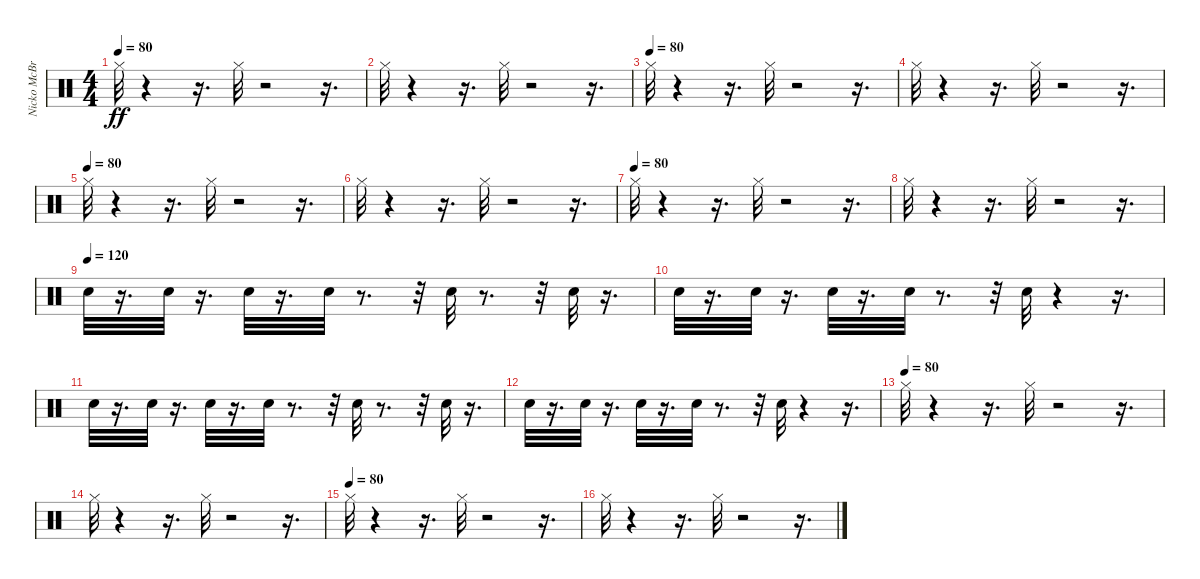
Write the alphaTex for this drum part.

\track ("Nicko McBrain" "Nicko McBr") {instrument percussion}
\staff {score}
\articulation defaults
\ts (4 4)
\tempo 80
\clef neutral
\ks c "Hi-Hat (closed)".32{dy ff}
r.4 r.16{d} "Hi-Hat (closed)".32 r.2 r.16{d} |
"Hi-Hat (closed)".32 r.4 r.16{d} "Hi-Hat (closed)".32 r.2 r.16{d} |
\tempo (80)
"Hi-Hat (closed)".32 r.4 r.16{d} "Hi-Hat (closed)".32 r.2 r.16{d} |
"Hi-Hat (closed)".32 r.4 r.16{d} "Hi-Hat (closed)".32 r.2 r.16{d} |
\tempo (80)
"Hi-Hat (closed)".32 r.4 r.16{d} "Hi-Hat (closed)".32 r.2 r.16{d} |
"Hi-Hat (closed)".32 r.4 r.16{d} "Hi-Hat (closed)".32 r.2 r.16{d} |
\tempo (80)
"Hi-Hat (closed)".32 r.4 r.16{d} "Hi-Hat (closed)".32 r.2 r.16{d} |
"Hi-Hat (closed)".32 r.4 r.16{d} "Hi-Hat (closed)".32 r.2 r.16{d} |
\tempo (120)
"Snare (hit) 2".32 r.16{d} "Snare (hit) 2".32 r.16{d} "Snare (hit) 2".32 r.16{d} "Snare (hit) 2".32 r.8{d} r.32 "Snare (hit) 2".32 r.8{d} r.32 "Snare (hit) 2".32 r.16{d} |
"Snare (hit) 2".32 r.16{d} "Snare (hit) 2".32 r.16{d} "Snare (hit) 2".32 r.16{d} "Snare (hit) 2".32 r.8{d} r.32 "Snare (hit) 2".32 r.4 r.16{d} |
"Snare (hit) 2".32 r.16{d} "Snare (hit) 2".32 r.16{d} "Snare (hit) 2".32 r.16{d} "Snare (hit) 2".32 r.8{d} r.32 "Snare (hit) 2".32 r.8{d} r.32 "Snare (hit) 2".32 r.16{d} |
"Snare (hit) 2".32 r.16{d} "Snare (hit) 2".32 r.16{d} "Snare (hit) 2".32 r.16{d} "Snare (hit) 2".32 r.8{d} r.32 "Snare (hit) 2".32 r.4 r.16{d} |
\tempo 112
\tempo (80)
"Hi-Hat (closed)".32 r.4 r.16{d} "Hi-Hat (closed)".32 r.2 r.16{d} |
"Hi-Hat (closed)".32 r.4 r.16{d} "Hi-Hat (closed)".32 r.2 r.16{d} |
\tempo (80)
"Hi-Hat (closed)".32 r.4 r.16{d} "Hi-Hat (closed)".32 r.2 r.16{d} |
"Hi-Hat (closed)".32 r.4 r.16{d} "Hi-Hat (closed)".32 r.2 r.16{d}
